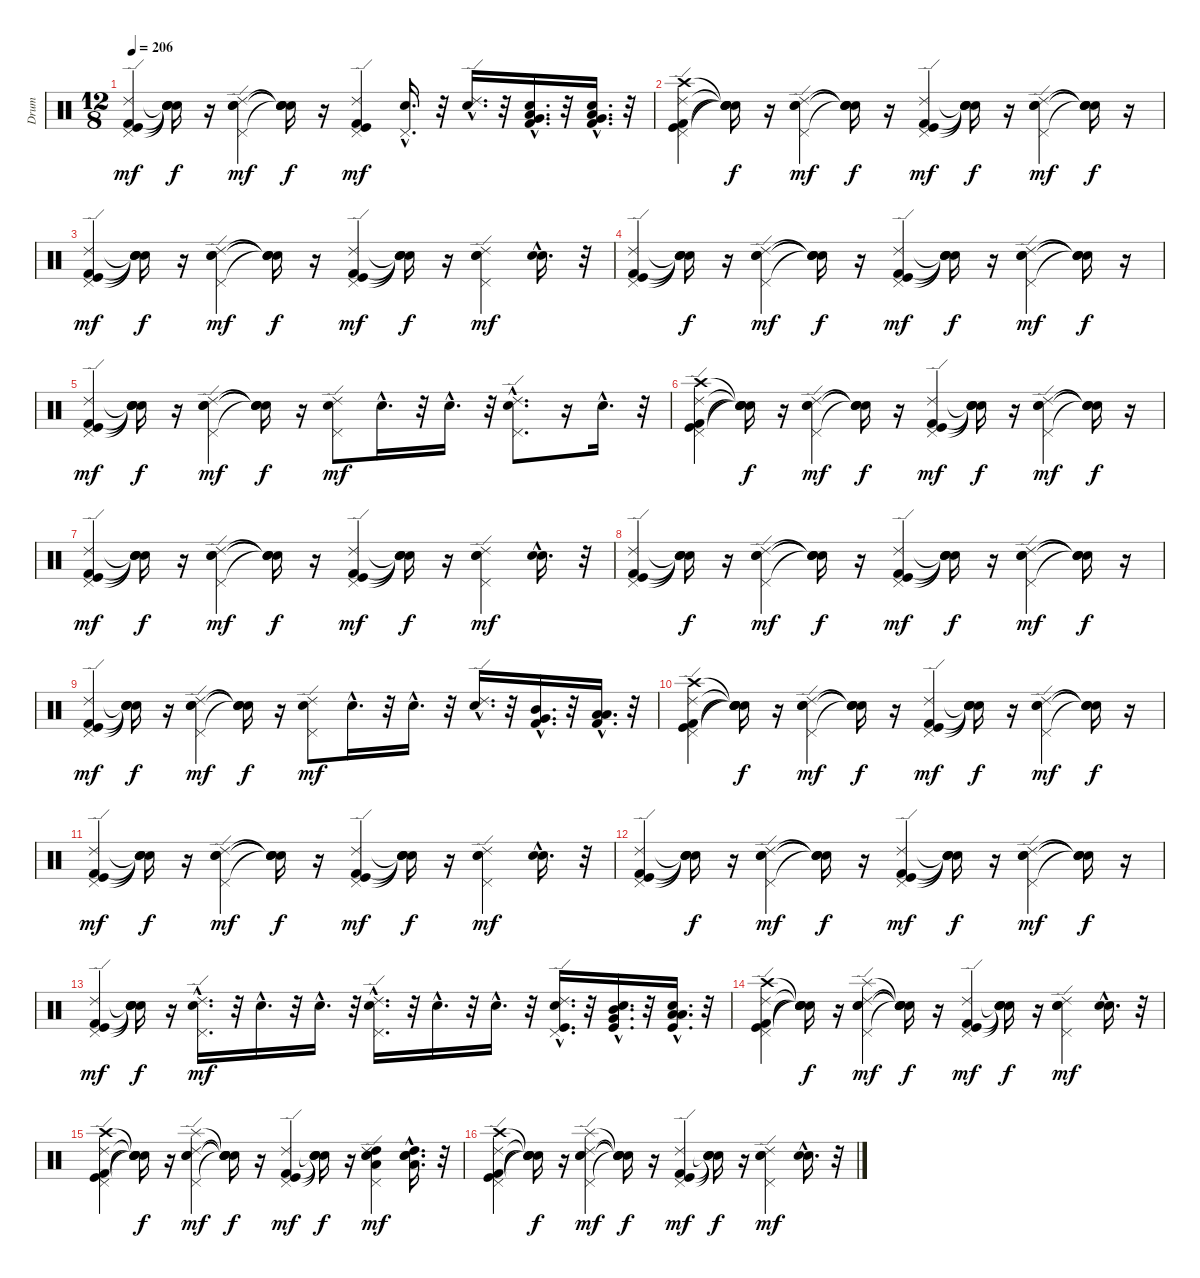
\track ("Drum" "Drum") {instrument percussion}
\staff {score}
\articulation defaults
\ts (12 8)
\tempo 206
\clef neutral
\ks c
("Ride (edge) 2" "Pedal Hi-Hat (hit)" "Kick (hit) 2" "Kick (hit)").4{dy mf} ("Snare (hit)"{t} "Snare (hit)"{t} "Snare (hit)"{t} "Snare (hit)"{t}).16{dy f} r.16 ("Ride (edge) 2" "Electric Snare (hit)" "Pedal Hi-Hat (hit)" "Snare (hit) 2").4{dy mf} ("Snare (hit)"{t} "Snare (hit)"{t} "Snare (hit)"{t} "Snare (hit)"{t}).16{dy f} r.16 ("Ride (edge) 2" "Pedal Hi-Hat (hit)" "Kick (hit)" "Kick (hit) 2").4{dy mf} ("Pedal Hi-Hat (hit)"{hac} "Snare (hit) 2"{hac}).16{d} r.32 ("Ride (edge) 2"{hac} "Snare (hit) 2"{hac}).16{d} r.32 ("Kick (hit) 2"{hac} "Low Tom (hit)"{hac} "Very Low Tom (hit)"{hac} "Snare (hit) 2"{hac}).16{d} r.32 ("Kick (hit) 2"{hac} "Low Tom (hit)"{hac} "Very Low Tom (hit)"{hac} "Snare (hit) 2"{hac}).16{d} r.32 |
("Pedal Hi-Hat (hit)" "Crash high (hit)" "Kick (hit) 2" "Kick (hit)" "Ride (edge) 2").4 ("Snare (hit)"{t} "Snare (hit)"{t} "Snare (hit)"{t} "Snare (hit)"{t} "Snare (hit)"{t}).16{dy f} r.16 ("Electric Snare (hit)" "Snare (hit) 2" "Pedal Hi-Hat (hit)" "Ride (edge) 2").4{dy mf} ("Snare (hit)"{t} "Snare (hit)"{t} "Snare (hit)"{t} "Snare (hit)"{t}).16{dy f} r.16 ("Kick (hit) 2" "Pedal Hi-Hat (hit)" "Kick (hit)" "Ride (edge) 2").4{dy mf} ("Snare (hit)"{t} "Snare (hit)"{t} "Snare (hit)"{t} "Snare (hit)"{t}).16{dy f} r.16 ("Pedal Hi-Hat (hit)" "Electric Snare (hit)" "Snare (hit) 2" "Ride (edge) 2").4{dy mf} ("Snare (hit)"{t} "Snare (hit)"{t} "Snare (hit)"{t} "Snare (hit)"{t}).16{dy f} r.16 |
("Kick (hit) 2" "Kick (hit)" "Pedal Hi-Hat (hit)" "Ride (edge) 2").4{dy mf} ("Snare (hit)"{t} "Snare (hit)"{t} "Snare (hit)"{t} "Snare (hit)"{t}).16{dy f} r.16 ("Pedal Hi-Hat (hit)" "Electric Snare (hit)" "Snare (hit) 2" "Ride (edge) 2").4{dy mf} ("Snare (hit)"{t} "Snare (hit)"{t} "Snare (hit)"{t} "Snare (hit)"{t}).16{dy f} r.16 ("Kick (hit)" "Kick (hit) 2" "Pedal Hi-Hat (hit)" "Ride (edge) 2").4{dy mf} ("Snare (hit)"{t} "Snare (hit)"{t} "Snare (hit)"{t} "Snare (hit)"{t}).16{dy f} r.16 ("Pedal Hi-Hat (hit)" "Snare (hit) 2" "Electric Snare (hit)" "Ride (edge) 2").4{dy mf} ("Snare (hit) 2"{hac} "Electric Snare (hit)"{hac}).16{d} r.32 |
("Pedal Hi-Hat (hit)" "Kick (hit) 2" "Kick (hit)" "Ride (edge) 2").4 ("Snare (hit)"{t} "Snare (hit)"{t} "Snare (hit)"{t} "Snare (hit)"{t}).16{dy f} r.16 ("Snare (hit) 2" "Electric Snare (hit)" "Pedal Hi-Hat (hit)" "Ride (edge) 2").4{dy mf} ("Snare (hit)"{t} "Snare (hit)"{t} "Snare (hit)"{t} "Snare (hit)"{t}).16{dy f} r.16 ("Pedal Hi-Hat (hit)" "Kick (hit)" "Kick (hit) 2" "Ride (edge) 2").4{dy mf} ("Snare (hit)"{t} "Snare (hit)"{t} "Snare (hit)"{t} "Snare (hit)"{t}).16{dy f} r.16 ("Electric Snare (hit)" "Snare (hit) 2" "Pedal Hi-Hat (hit)" "Ride (edge) 2").4{dy mf} ("Snare (hit)"{t} "Snare (hit)"{t} "Snare (hit)"{t} "Snare (hit)"{t}).16{dy f} r.16 |
("Kick (hit)" "Kick (hit) 2" "Pedal Hi-Hat (hit)" "Ride (edge) 2").4{dy mf} ("Snare (hit)"{t} "Snare (hit)"{t} "Snare (hit)"{t} "Snare (hit)"{t}).16{dy f} r.16 ("Snare (hit) 2" "Pedal Hi-Hat (hit)" "Electric Snare (hit)" "Ride (edge) 2").4{dy mf} ("Snare (hit)"{t} "Snare (hit)"{t} "Snare (hit)"{t} "Snare (hit)"{t}).16{dy f} r.16 ("Snare (hit) 2" "Pedal Hi-Hat (hit)" "Ride (edge) 2").8{dy mf} "Snare (hit) 2"{hac}.16{d} r.32 "Snare (hit) 2"{hac}.16{d} r.32 ("Ride (edge) 2"{hac} "Pedal Hi-Hat (hit)"{hac} "Snare (hit) 2"{hac}).8{d} r.16 "Snare (hit) 2"{hac}.16{d} r.32 |
("Ride (edge) 2" "Kick (hit)" "Kick (hit) 2" "Crash high (hit)" "Pedal Hi-Hat (hit)").4 ("Snare (hit)"{t} "Snare (hit)"{t} "Snare (hit)"{t} "Snare (hit)"{t} "Snare (hit)"{t}).16{dy f} r.16 ("Ride (edge) 2" "Pedal Hi-Hat (hit)" "Snare (hit) 2" "Electric Snare (hit)").4{dy mf} ("Snare (hit)"{t} "Snare (hit)"{t} "Snare (hit)"{t} "Snare (hit)"{t}).16{dy f} r.16 ("Ride (edge) 2" "Kick (hit)" "Pedal Hi-Hat (hit)" "Kick (hit) 2").4{dy mf} ("Snare (hit)"{t} "Snare (hit)"{t} "Snare (hit)"{t} "Snare (hit)"{t}).16{dy f} r.16 ("Ride (edge) 2" "Snare (hit) 2" "Electric Snare (hit)" "Pedal Hi-Hat (hit)").4{dy mf} ("Snare (hit)"{t} "Snare (hit)"{t} "Snare (hit)"{t} "Snare (hit)"{t}).16{dy f} r.16 |
("Ride (edge) 2" "Pedal Hi-Hat (hit)" "Kick (hit)" "Kick (hit) 2").4{dy mf} ("Snare (hit)"{t} "Snare (hit)"{t} "Snare (hit)"{t} "Snare (hit)"{t}).16{dy f} r.16 ("Ride (edge) 2" "Snare (hit) 2" "Electric Snare (hit)" "Pedal Hi-Hat (hit)").4{dy mf} ("Snare (hit)"{t} "Snare (hit)"{t} "Snare (hit)"{t} "Snare (hit)"{t}).16{dy f} r.16 ("Ride (edge) 2" "Pedal Hi-Hat (hit)" "Kick (hit) 2" "Kick (hit)").4{dy mf} ("Snare (hit)"{t} "Snare (hit)"{t} "Snare (hit)"{t} "Snare (hit)"{t}).16{dy f} r.16 ("Ride (edge) 2" "Electric Snare (hit)" "Snare (hit) 2" "Pedal Hi-Hat (hit)").4{dy mf} ("Electric Snare (hit)"{hac} "Snare (hit) 2"{hac}).16{d} r.32 |
("Ride (edge) 2" "Kick (hit)" "Kick (hit) 2" "Pedal Hi-Hat (hit)").4 ("Snare (hit)"{t} "Snare (hit)"{t} "Snare (hit)"{t} "Snare (hit)"{t}).16{dy f} r.16 ("Ride (edge) 2" "Pedal Hi-Hat (hit)" "Electric Snare (hit)" "Snare (hit) 2").4{dy mf} ("Snare (hit)"{t} "Snare (hit)"{t} "Snare (hit)"{t} "Snare (hit)"{t}).16{dy f} r.16 ("Ride (edge) 2" "Kick (hit) 2" "Kick (hit)" "Pedal Hi-Hat (hit)").4{dy mf} ("Snare (hit)"{t} "Snare (hit)"{t} "Snare (hit)"{t} "Snare (hit)"{t}).16{dy f} r.16 ("Ride (edge) 2" "Pedal Hi-Hat (hit)" "Snare (hit) 2" "Electric Snare (hit)").4{dy mf} ("Snare (hit)"{t} "Snare (hit)"{t} "Snare (hit)"{t} "Snare (hit)"{t}).16{dy f} r.16 |
("Ride (edge) 2" "Pedal Hi-Hat (hit)" "Kick (hit) 2" "Kick (hit)").4{dy mf} ("Snare (hit)"{t} "Snare (hit)"{t} "Snare (hit)"{t} "Snare (hit)"{t}).16{dy f} r.16 ("Ride (edge) 2" "Electric Snare (hit)" "Pedal Hi-Hat (hit)" "Snare (hit) 2").4{dy mf} ("Snare (hit)"{t} "Snare (hit)"{t} "Snare (hit)"{t} "Snare (hit)"{t}).16{dy f} r.16 ("Ride (edge) 2" "Pedal Hi-Hat (hit)" "Snare (hit) 2").8{dy mf} "Snare (hit) 2"{hac}.16{d} r.32 "Snare (hit) 2"{hac}.16{d} r.32 ("Snare (hit) 2"{hac} "Ride (edge) 2"{hac}).16{d} r.32 ("Kick (hit) 2"{hac} "Mid Tom (hit)"{hac} "Very Low Tom (hit)"{hac}).16{d} r.32 ("Kick (hit) 2"{hac} "Low Tom (hit)"{hac} "Low Floor Tom (hit)"{hac}).16{d} r.32 |
("Ride (edge) 2" "Kick (hit)" "Kick (hit) 2" "Crash high (hit)" "Pedal Hi-Hat (hit)").4 ("Snare (hit)"{t} "Snare (hit)"{t} "Snare (hit)"{t} "Snare (hit)"{t} "Snare (hit)"{t}).16{dy f} r.16 ("Ride (edge) 2" "Pedal Hi-Hat (hit)" "Snare (hit) 2" "Electric Snare (hit)").4{dy mf} ("Snare (hit)"{t} "Snare (hit)"{t} "Snare (hit)"{t} "Snare (hit)"{t}).16{dy f} r.16 ("Ride (edge) 2" "Kick (hit)" "Pedal Hi-Hat (hit)" "Kick (hit) 2").4{dy mf} ("Snare (hit)"{t} "Snare (hit)"{t} "Snare (hit)"{t} "Snare (hit)"{t}).16{dy f} r.16 ("Ride (edge) 2" "Snare (hit) 2" "Electric Snare (hit)" "Pedal Hi-Hat (hit)").4{dy mf} ("Snare (hit)"{t} "Snare (hit)"{t} "Snare (hit)"{t} "Snare (hit)"{t}).16{dy f} r.16 |
("Ride (edge) 2" "Pedal Hi-Hat (hit)" "Kick (hit)" "Kick (hit) 2").4{dy mf} ("Snare (hit)"{t} "Snare (hit)"{t} "Snare (hit)"{t} "Snare (hit)"{t}).16{dy f} r.16 ("Ride (edge) 2" "Snare (hit) 2" "Electric Snare (hit)" "Pedal Hi-Hat (hit)").4{dy mf} ("Snare (hit)"{t} "Snare (hit)"{t} "Snare (hit)"{t} "Snare (hit)"{t}).16{dy f} r.16 ("Ride (edge) 2" "Pedal Hi-Hat (hit)" "Kick (hit) 2" "Kick (hit)").4{dy mf} ("Snare (hit)"{t} "Snare (hit)"{t} "Snare (hit)"{t} "Snare (hit)"{t}).16{dy f} r.16 ("Ride (edge) 2" "Electric Snare (hit)" "Snare (hit) 2" "Pedal Hi-Hat (hit)").4{dy mf} ("Electric Snare (hit)"{hac} "Snare (hit) 2"{hac}).16{d} r.32 |
("Ride (edge) 2" "Kick (hit)" "Kick (hit) 2" "Pedal Hi-Hat (hit)").4 ("Snare (hit)"{t} "Snare (hit)"{t} "Snare (hit)"{t} "Snare (hit)"{t}).16{dy f} r.16 ("Ride (edge) 2" "Pedal Hi-Hat (hit)" "Electric Snare (hit)" "Snare (hit) 2").4{dy mf} ("Snare (hit)"{t} "Snare (hit)"{t} "Snare (hit)"{t} "Snare (hit)"{t}).16{dy f} r.16 ("Ride (edge) 2" "Kick (hit) 2" "Kick (hit)" "Pedal Hi-Hat (hit)").4{dy mf} ("Snare (hit)"{t} "Snare (hit)"{t} "Snare (hit)"{t} "Snare (hit)"{t}).16{dy f} r.16 ("Ride (edge) 2" "Pedal Hi-Hat (hit)" "Snare (hit) 2" "Electric Snare (hit)").4{dy mf} ("Snare (hit)"{t} "Snare (hit)"{t} "Snare (hit)"{t} "Snare (hit)"{t}).16{dy f} r.16 |
("Ride (edge) 2" "Pedal Hi-Hat (hit)" "Kick (hit) 2" "Kick (hit)").4{dy mf} ("Snare (hit)"{t} "Snare (hit)"{t} "Snare (hit)"{t} "Snare (hit)"{t}).16{dy f} r.16 ("Pedal Hi-Hat (hit)"{hac} "Ride (edge) 2"{hac} "Snare (hit) 2"{hac}).16{d dy mf} r.32 "Snare (hit) 2"{hac}.16{d} r.32 "Snare (hit) 2"{hac}.16{d} r.32 ("Pedal Hi-Hat (hit)"{hac} "Ride (edge) 2"{hac} "Electric Snare (hit)"{hac}).16{d} r.32 "Electric Snare (hit)"{hac}.16{d} r.32 "Electric Snare (hit)"{hac}.16{d} r.32 ("Kick (hit)"{hac} "Pedal Hi-Hat (hit)"{hac} "Ride (edge) 2"{hac} "Snare (hit) 2"{hac}).16{d} r.32 ("Kick (hit)"{hac} "Very Low Tom (hit)"{hac} "Mid Tom (hit)"{hac} "Snare (hit) 2"{hac}).16{d} r.32 ("Kick (hit)"{hac} "Low Floor Tom (hit)"{hac} "Low Tom (hit)"{hac} "Snare (hit) 2"{hac}).16{d} r.32 |
("Pedal Hi-Hat (hit)" "Kick (hit)" "Kick (hit) 2" "Ride (edge) 2" "Crash high (hit)").4 ("Snare (hit)"{t} "Snare (hit)"{t} "Snare (hit)"{t} "Snare (hit)"{t} "Snare (hit)"{t}).16{dy f} r.16 ("Snare (hit) 2" "Electric Snare (hit)" "Pedal Hi-Hat (hit)" "Ride (edge) 2" "Splash (hit)").4{dy mf} ("Snare (hit)"{t} "Snare (hit)"{t} "Snare (hit)"{t} "Snare (hit)"{t} "Snare (hit)"{t}).16{dy f} r.16 ("Pedal Hi-Hat (hit)" "Kick (hit) 2" "Kick (hit)" "Ride (edge) 2").4{dy mf} ("Snare (hit)"{t} "Snare (hit)"{t} "Snare (hit)"{t} "Snare (hit)"{t}).16{dy f} r.16 ("Electric Snare (hit)" "Snare (hit) 2" "Pedal Hi-Hat (hit)" "Ride (edge) 2").4{dy mf} ("Electric Snare (hit)"{hac} "Snare (hit) 2"{hac}).16{d} r.32 |
("Crash high (hit)" "Ride (edge) 2" "Kick (hit) 2" "Kick (hit)" "Pedal Hi-Hat (hit)").4 ("Snare (hit)"{t} "Snare (hit)"{t} "Snare (hit)"{t} "Snare (hit)"{t} "Snare (hit)"{t}).16{dy f} r.16 ("Splash (hit)" "Ride (edge) 2" "Pedal Hi-Hat (hit)" "Electric Snare (hit)" "Snare (hit) 2").4{dy mf} ("Snare (hit)"{t} "Snare (hit)"{t} "Snare (hit)"{t} "Snare (hit)"{t} "Snare (hit)"{t}).16{dy f} r.16 ("Ride (edge) 2" "Kick (hit)" "Kick (hit) 2" "Pedal Hi-Hat (hit)").4{dy mf} ("Snare (hit)"{t} "Snare (hit)"{t} "Snare (hit)"{t} "Snare (hit)"{t}).16{dy f} r.16 ("High Tom (hit)" "Low Tom (hit)" "Ride (edge) 2" "Pedal Hi-Hat (hit)" "Snare (hit) 2" "Electric Snare (hit)").4{dy mf} ("High Tom (hit)"{hac} "Low Tom (hit)"{hac} "Snare (hit) 2"{hac} "Electric Snare (hit)"{hac}).16{d} r.32 |
("Pedal Hi-Hat (hit)" "Kick (hit)" "Kick (hit) 2" "Ride (edge) 2" "Crash high (hit)").4 ("Snare (hit)"{t} "Snare (hit)"{t} "Snare (hit)"{t} "Snare (hit)"{t} "Snare (hit)"{t}).16{dy f} r.16 ("Snare (hit) 2" "Electric Snare (hit)" "Pedal Hi-Hat (hit)" "Ride (edge) 2" "Splash (hit)").4{dy mf} ("Snare (hit)"{t} "Snare (hit)"{t} "Snare (hit)"{t} "Snare (hit)"{t} "Snare (hit)"{t}).16{dy f} r.16 ("Pedal Hi-Hat (hit)" "Kick (hit) 2" "Kick (hit)" "Ride (edge) 2").4{dy mf} ("Snare (hit)"{t} "Snare (hit)"{t} "Snare (hit)"{t} "Snare (hit)"{t}).16{dy f} r.16 ("Electric Snare (hit)" "Snare (hit) 2" "Pedal Hi-Hat (hit)" "Ride (edge) 2").4{dy mf} ("Electric Snare (hit)"{hac} "Snare (hit) 2"{hac}).16{d} r.32
